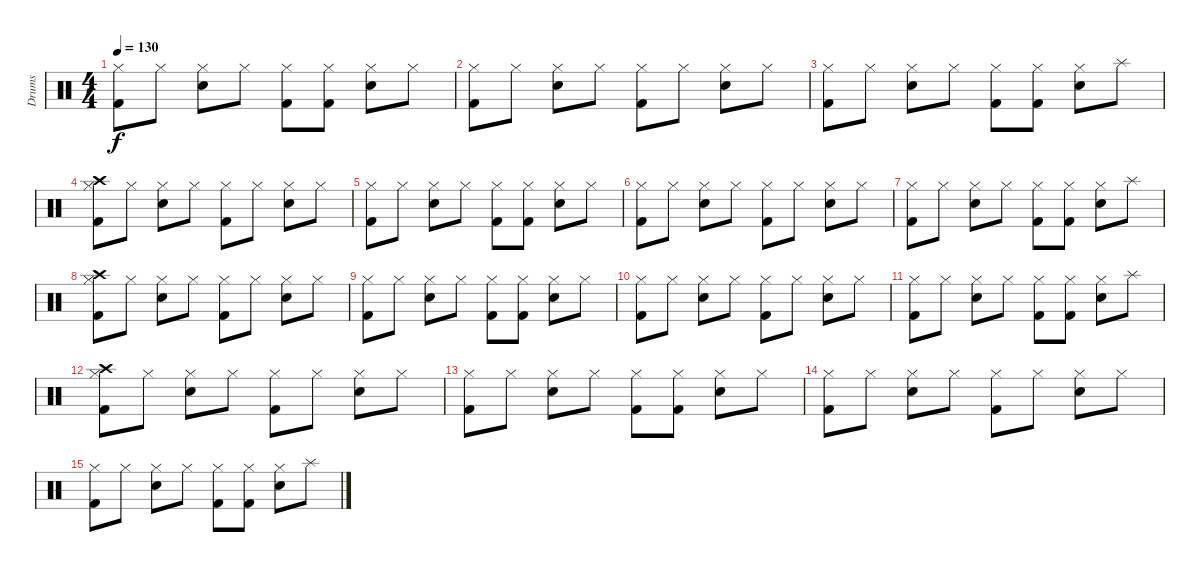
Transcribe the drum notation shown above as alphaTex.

\track ("Drums" "Drums") {instrument percussion}
\staff {score}
\articulation defaults
\ts (4 4)
\tempo 130
\clef neutral
\ks c
("Hi-Hat (closed)" "Kick (hit) 2").8{dy f} "Hi-Hat (closed)".8 ("Hi-Hat (closed)" "Electric Snare (hit)").8 "Hi-Hat (closed)".8 ("Hi-Hat (closed)" "Kick (hit) 2").8 ("Hi-Hat (closed)" "Kick (hit) 2").8 ("Hi-Hat (closed)" "Electric Snare (hit)").8 "Hi-Hat (closed)".8 |
("Hi-Hat (closed)" "Kick (hit) 2").8 "Hi-Hat (closed)".8 ("Hi-Hat (closed)" "Electric Snare (hit)").8 "Hi-Hat (closed)".8 ("Hi-Hat (closed)" "Kick (hit) 2").8 "Hi-Hat (closed)".8 ("Hi-Hat (closed)" "Electric Snare (hit)").8 "Hi-Hat (closed)".8 |
("Hi-Hat (closed)" "Kick (hit) 2").8 "Hi-Hat (closed)".8 ("Hi-Hat (closed)" "Electric Snare (hit)").8 "Hi-Hat (closed)".8 ("Hi-Hat (closed)" "Kick (hit) 2").8 ("Hi-Hat (closed)" "Kick (hit) 2").8 ("Hi-Hat (closed)" "Electric Snare (hit)").8 "Splash (hit)".8 |
("Crash high (hit)" "Hi-Hat (closed)" "Kick (hit) 2").8 "Hi-Hat (closed)".8 ("Hi-Hat (closed)" "Electric Snare (hit)").8 "Hi-Hat (closed)".8 ("Hi-Hat (closed)" "Kick (hit) 2").8 "Hi-Hat (closed)".8 ("Hi-Hat (closed)" "Electric Snare (hit)").8 "Hi-Hat (closed)".8 |
("Hi-Hat (closed)" "Kick (hit) 2").8 "Hi-Hat (closed)".8 ("Hi-Hat (closed)" "Electric Snare (hit)").8 "Hi-Hat (closed)".8 ("Hi-Hat (closed)" "Kick (hit) 2").8 ("Hi-Hat (closed)" "Kick (hit) 2").8 ("Hi-Hat (closed)" "Electric Snare (hit)").8 "Hi-Hat (closed)".8 |
("Hi-Hat (closed)" "Kick (hit) 2").8 "Hi-Hat (closed)".8 ("Hi-Hat (closed)" "Electric Snare (hit)").8 "Hi-Hat (closed)".8 ("Hi-Hat (closed)" "Kick (hit) 2").8 "Hi-Hat (closed)".8 ("Hi-Hat (closed)" "Electric Snare (hit)").8 "Hi-Hat (closed)".8 |
("Hi-Hat (closed)" "Kick (hit) 2").8 "Hi-Hat (closed)".8 ("Hi-Hat (closed)" "Electric Snare (hit)").8 "Hi-Hat (closed)".8 ("Hi-Hat (closed)" "Kick (hit) 2").8 ("Hi-Hat (closed)" "Kick (hit) 2").8 ("Hi-Hat (closed)" "Electric Snare (hit)").8 "Splash (hit)".8 |
("Crash high (hit)" "Hi-Hat (closed)" "Kick (hit) 2").8 "Hi-Hat (closed)".8 ("Hi-Hat (closed)" "Electric Snare (hit)").8 "Hi-Hat (closed)".8 ("Hi-Hat (closed)" "Kick (hit) 2").8 "Hi-Hat (closed)".8 ("Hi-Hat (closed)" "Electric Snare (hit)").8 "Hi-Hat (closed)".8 |
("Hi-Hat (closed)" "Kick (hit) 2").8 "Hi-Hat (closed)".8 ("Hi-Hat (closed)" "Electric Snare (hit)").8 "Hi-Hat (closed)".8 ("Hi-Hat (closed)" "Kick (hit) 2").8 ("Hi-Hat (closed)" "Kick (hit) 2").8 ("Hi-Hat (closed)" "Electric Snare (hit)").8 "Hi-Hat (closed)".8 |
("Hi-Hat (closed)" "Kick (hit) 2").8 "Hi-Hat (closed)".8 ("Hi-Hat (closed)" "Electric Snare (hit)").8 "Hi-Hat (closed)".8 ("Hi-Hat (closed)" "Kick (hit) 2").8 "Hi-Hat (closed)".8 ("Hi-Hat (closed)" "Electric Snare (hit)").8 "Hi-Hat (closed)".8 |
("Hi-Hat (closed)" "Kick (hit) 2").8 "Hi-Hat (closed)".8 ("Hi-Hat (closed)" "Electric Snare (hit)").8 "Hi-Hat (closed)".8 ("Hi-Hat (closed)" "Kick (hit) 2").8 ("Hi-Hat (closed)" "Kick (hit) 2").8 ("Hi-Hat (closed)" "Electric Snare (hit)").8 "Splash (hit)".8 |
("Crash high (hit)" "Hi-Hat (closed)" "Kick (hit) 2").8 "Hi-Hat (closed)".8 ("Hi-Hat (closed)" "Electric Snare (hit)").8 "Hi-Hat (closed)".8 ("Hi-Hat (closed)" "Kick (hit) 2").8 "Hi-Hat (closed)".8 ("Hi-Hat (closed)" "Electric Snare (hit)").8 "Hi-Hat (closed)".8 |
("Hi-Hat (closed)" "Kick (hit) 2").8 "Hi-Hat (closed)".8 ("Hi-Hat (closed)" "Electric Snare (hit)").8 "Hi-Hat (closed)".8 ("Hi-Hat (closed)" "Kick (hit) 2").8 ("Hi-Hat (closed)" "Kick (hit) 2").8 ("Hi-Hat (closed)" "Electric Snare (hit)").8 "Hi-Hat (closed)".8 |
("Hi-Hat (closed)" "Kick (hit) 2").8 "Hi-Hat (closed)".8 ("Hi-Hat (closed)" "Electric Snare (hit)").8 "Hi-Hat (closed)".8 ("Hi-Hat (closed)" "Kick (hit) 2").8 "Hi-Hat (closed)".8 ("Hi-Hat (closed)" "Electric Snare (hit)").8 "Hi-Hat (closed)".8 |
("Hi-Hat (closed)" "Kick (hit) 2").8 "Hi-Hat (closed)".8 ("Hi-Hat (closed)" "Electric Snare (hit)").8 "Hi-Hat (closed)".8 ("Hi-Hat (closed)" "Kick (hit) 2").8 ("Hi-Hat (closed)" "Kick (hit) 2").8 ("Hi-Hat (closed)" "Electric Snare (hit)").8 "Splash (hit)".8
